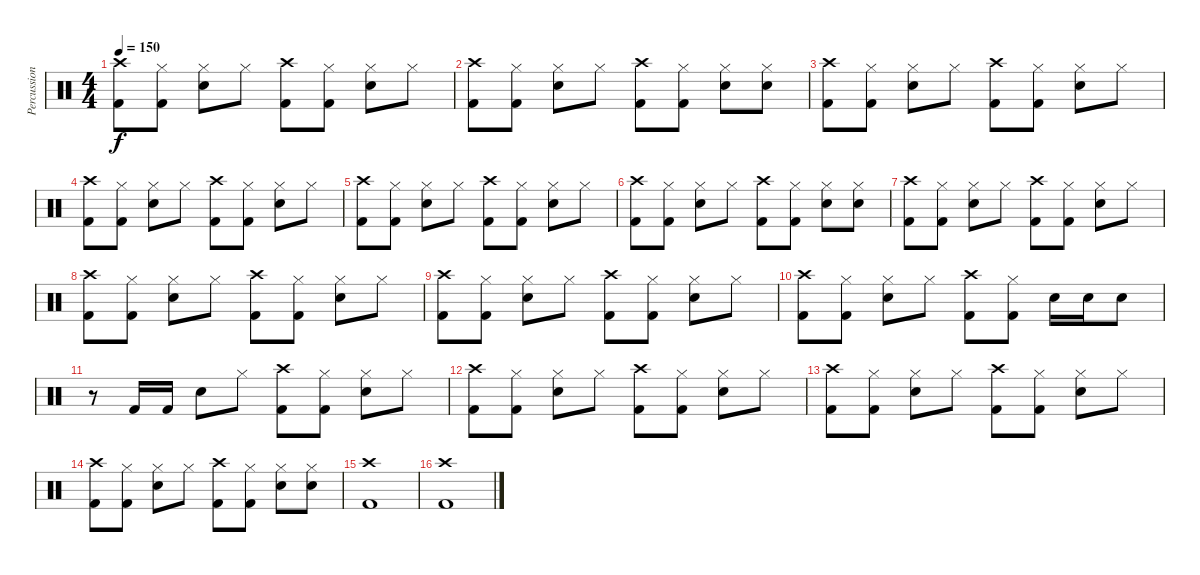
\track ("Percussion" "Percussion") {instrument percussion}
\staff {score}
\articulation defaults
\ts (4 4)
\tempo 150
\clef neutral
\ks c
("Crash high (hit)" "Kick (hit) 2").8{dy f} ("Hi-Hat (closed)" "Kick (hit) 2").8 ("Hi-Hat (closed)" "Electric Snare (hit)").8 "Hi-Hat (closed)".8 ("Crash high (hit)" "Kick (hit) 2").8 ("Hi-Hat (closed)" "Kick (hit) 2").8 ("Hi-Hat (closed)" "Electric Snare (hit)").8 "Hi-Hat (closed)".8 |
("Crash high (hit)" "Kick (hit) 2").8 ("Hi-Hat (closed)" "Kick (hit) 2").8 ("Hi-Hat (closed)" "Electric Snare (hit)").8 "Hi-Hat (closed)".8 ("Crash high (hit)" "Kick (hit) 2").8 ("Hi-Hat (closed)" "Kick (hit) 2").8 ("Hi-Hat (closed)" "Electric Snare (hit)").8 ("Hi-Hat (closed)" "Electric Snare (hit)").8 |
("Crash high (hit)" "Kick (hit) 2").8 ("Hi-Hat (closed)" "Kick (hit) 2").8 ("Hi-Hat (closed)" "Electric Snare (hit)").8 "Hi-Hat (closed)".8 ("Crash high (hit)" "Kick (hit) 2").8 ("Hi-Hat (closed)" "Kick (hit) 2").8 ("Hi-Hat (closed)" "Electric Snare (hit)").8 "Hi-Hat (closed)".8 |
("Crash high (hit)" "Kick (hit) 2").8 ("Hi-Hat (closed)" "Kick (hit) 2").8 ("Hi-Hat (closed)" "Electric Snare (hit)").8 "Hi-Hat (closed)".8 ("Crash high (hit)" "Kick (hit) 2").8 ("Hi-Hat (closed)" "Kick (hit) 2").8 ("Hi-Hat (closed)" "Electric Snare (hit)").8 "Hi-Hat (closed)".8 |
("Crash high (hit)" "Kick (hit) 2").8 ("Hi-Hat (closed)" "Kick (hit) 2").8 ("Hi-Hat (closed)" "Electric Snare (hit)").8 "Hi-Hat (closed)".8 ("Crash high (hit)" "Kick (hit) 2").8 ("Hi-Hat (closed)" "Kick (hit) 2").8 ("Hi-Hat (closed)" "Electric Snare (hit)").8 "Hi-Hat (closed)".8 |
("Crash high (hit)" "Kick (hit) 2").8 ("Hi-Hat (closed)" "Kick (hit) 2").8 ("Hi-Hat (closed)" "Electric Snare (hit)").8 "Hi-Hat (closed)".8 ("Crash high (hit)" "Kick (hit) 2").8 ("Hi-Hat (closed)" "Kick (hit) 2").8 ("Hi-Hat (closed)" "Electric Snare (hit)").8 ("Hi-Hat (closed)" "Electric Snare (hit)").8 |
("Crash high (hit)" "Kick (hit) 2").8 ("Hi-Hat (closed)" "Kick (hit) 2").8 ("Hi-Hat (closed)" "Electric Snare (hit)").8 "Hi-Hat (closed)".8 ("Crash high (hit)" "Kick (hit) 2").8 ("Hi-Hat (closed)" "Kick (hit) 2").8 ("Hi-Hat (closed)" "Electric Snare (hit)").8 "Hi-Hat (closed)".8 |
("Crash high (hit)" "Kick (hit) 2").8 ("Hi-Hat (closed)" "Kick (hit) 2").8 ("Hi-Hat (closed)" "Electric Snare (hit)").8 "Hi-Hat (closed)".8 ("Crash high (hit)" "Kick (hit) 2").8 ("Hi-Hat (closed)" "Kick (hit) 2").8 ("Hi-Hat (closed)" "Electric Snare (hit)").8 "Hi-Hat (closed)".8 |
("Crash high (hit)" "Kick (hit) 2").8 ("Hi-Hat (closed)" "Kick (hit) 2").8 ("Hi-Hat (closed)" "Electric Snare (hit)").8 "Hi-Hat (closed)".8 ("Crash high (hit)" "Kick (hit) 2").8 ("Hi-Hat (closed)" "Kick (hit) 2").8 ("Hi-Hat (closed)" "Electric Snare (hit)").8 "Hi-Hat (closed)".8 |
("Crash high (hit)" "Kick (hit) 2").8 ("Hi-Hat (closed)" "Kick (hit) 2").8 ("Hi-Hat (closed)" "Electric Snare (hit)").8 "Hi-Hat (closed)".8 ("Crash high (hit)" "Kick (hit) 2").8 ("Hi-Hat (closed)" "Kick (hit) 2").8 "Electric Snare (hit)".16 "Electric Snare (hit)".16 "Electric Snare (hit)".8 |
r.8 "Kick (hit) 2".16 "Kick (hit) 2".16 "Electric Snare (hit)".8 "Hi-Hat (closed)".8 ("Crash high (hit)" "Kick (hit) 2").8 ("Hi-Hat (closed)" "Kick (hit) 2").8 ("Hi-Hat (closed)" "Electric Snare (hit)").8 "Hi-Hat (closed)".8 |
("Crash high (hit)" "Kick (hit) 2").8 ("Hi-Hat (closed)" "Kick (hit) 2").8 ("Hi-Hat (closed)" "Electric Snare (hit)").8 "Hi-Hat (closed)".8 ("Crash high (hit)" "Kick (hit) 2").8 ("Hi-Hat (closed)" "Kick (hit) 2").8 ("Hi-Hat (closed)" "Electric Snare (hit)").8 "Hi-Hat (closed)".8 |
("Crash high (hit)" "Kick (hit) 2").8 ("Hi-Hat (closed)" "Kick (hit) 2").8 ("Hi-Hat (closed)" "Electric Snare (hit)").8 "Hi-Hat (closed)".8 ("Crash high (hit)" "Kick (hit) 2").8 ("Hi-Hat (closed)" "Kick (hit) 2").8 ("Hi-Hat (closed)" "Electric Snare (hit)").8 "Hi-Hat (closed)".8 |
("Crash high (hit)" "Kick (hit) 2").8 ("Hi-Hat (closed)" "Kick (hit) 2").8 ("Hi-Hat (closed)" "Electric Snare (hit)").8 "Hi-Hat (closed)".8 ("Crash high (hit)" "Kick (hit) 2").8 ("Hi-Hat (closed)" "Kick (hit) 2").8 ("Hi-Hat (closed)" "Electric Snare (hit)").8 ("Hi-Hat (closed)" "Electric Snare (hit)").8 |
("Crash high (hit)" "Kick (hit) 2").1 |
("Crash high (hit)" "Kick (hit) 2").1
